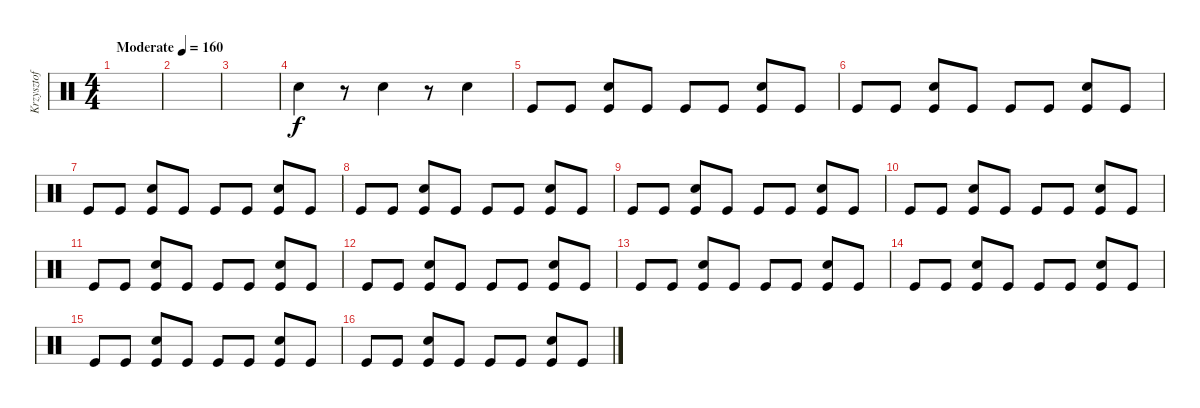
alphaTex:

\track ("Krzysztof Grela" "Krzysztof ") {instrument percussion}
\staff {score}
\articulation defaults
\ts (4 4)
\tempo (160 "Moderate")
\clef neutral
\ks c
|
|
|
"Snare (hit) 2".4 r.8 "Snare (hit) 2".4 r.8 "Snare (hit) 2".4 |
"Kick (hit)".8 "Kick (hit)".8 ("Snare (hit) 2" "Kick (hit)").8 "Kick (hit)".8 "Kick (hit)".8 "Kick (hit)".8 ("Snare (hit) 2" "Kick (hit)").8 "Kick (hit)".8 |
"Kick (hit)".8 "Kick (hit)".8 ("Snare (hit) 2" "Kick (hit)").8 "Kick (hit)".8 "Kick (hit)".8 "Kick (hit)".8 ("Snare (hit) 2" "Kick (hit)").8 "Kick (hit)".8 |
"Kick (hit)".8 "Kick (hit)".8 ("Snare (hit) 2" "Kick (hit)").8 "Kick (hit)".8 "Kick (hit)".8 "Kick (hit)".8 ("Snare (hit) 2" "Kick (hit)").8 "Kick (hit)".8 |
"Kick (hit)".8 "Kick (hit)".8 ("Snare (hit) 2" "Kick (hit)").8 "Kick (hit)".8 "Kick (hit)".8 "Kick (hit)".8 ("Snare (hit) 2" "Kick (hit)").8 "Kick (hit)".8 |
"Kick (hit)".8 "Kick (hit)".8 ("Snare (hit) 2" "Kick (hit)").8 "Kick (hit)".8 "Kick (hit)".8 "Kick (hit)".8 ("Snare (hit) 2" "Kick (hit)").8 "Kick (hit)".8 |
"Kick (hit)".8 "Kick (hit)".8 ("Snare (hit) 2" "Kick (hit)").8 "Kick (hit)".8 "Kick (hit)".8 "Kick (hit)".8 ("Snare (hit) 2" "Kick (hit)").8 "Kick (hit)".8 |
"Kick (hit)".8 "Kick (hit)".8 ("Snare (hit) 2" "Kick (hit)").8 "Kick (hit)".8 "Kick (hit)".8 "Kick (hit)".8 ("Snare (hit) 2" "Kick (hit)").8 "Kick (hit)".8 |
"Kick (hit)".8 "Kick (hit)".8 ("Snare (hit) 2" "Kick (hit)").8 "Kick (hit)".8 "Kick (hit)".8 "Kick (hit)".8 ("Snare (hit) 2" "Kick (hit)").8 "Kick (hit)".8 |
"Kick (hit)".8 "Kick (hit)".8 ("Snare (hit) 2" "Kick (hit)").8 "Kick (hit)".8 "Kick (hit)".8 "Kick (hit)".8 ("Snare (hit) 2" "Kick (hit)").8 "Kick (hit)".8 |
"Kick (hit)".8 "Kick (hit)".8 ("Snare (hit) 2" "Kick (hit)").8 "Kick (hit)".8 "Kick (hit)".8 "Kick (hit)".8 ("Snare (hit) 2" "Kick (hit)").8 "Kick (hit)".8 |
"Kick (hit)".8 "Kick (hit)".8 ("Snare (hit) 2" "Kick (hit)").8 "Kick (hit)".8 "Kick (hit)".8 "Kick (hit)".8 ("Snare (hit) 2" "Kick (hit)").8 "Kick (hit)".8 |
"Kick (hit)".8 "Kick (hit)".8 ("Snare (hit) 2" "Kick (hit)").8 "Kick (hit)".8 "Kick (hit)".8 "Kick (hit)".8 ("Snare (hit) 2" "Kick (hit)").8 "Kick (hit)".8
